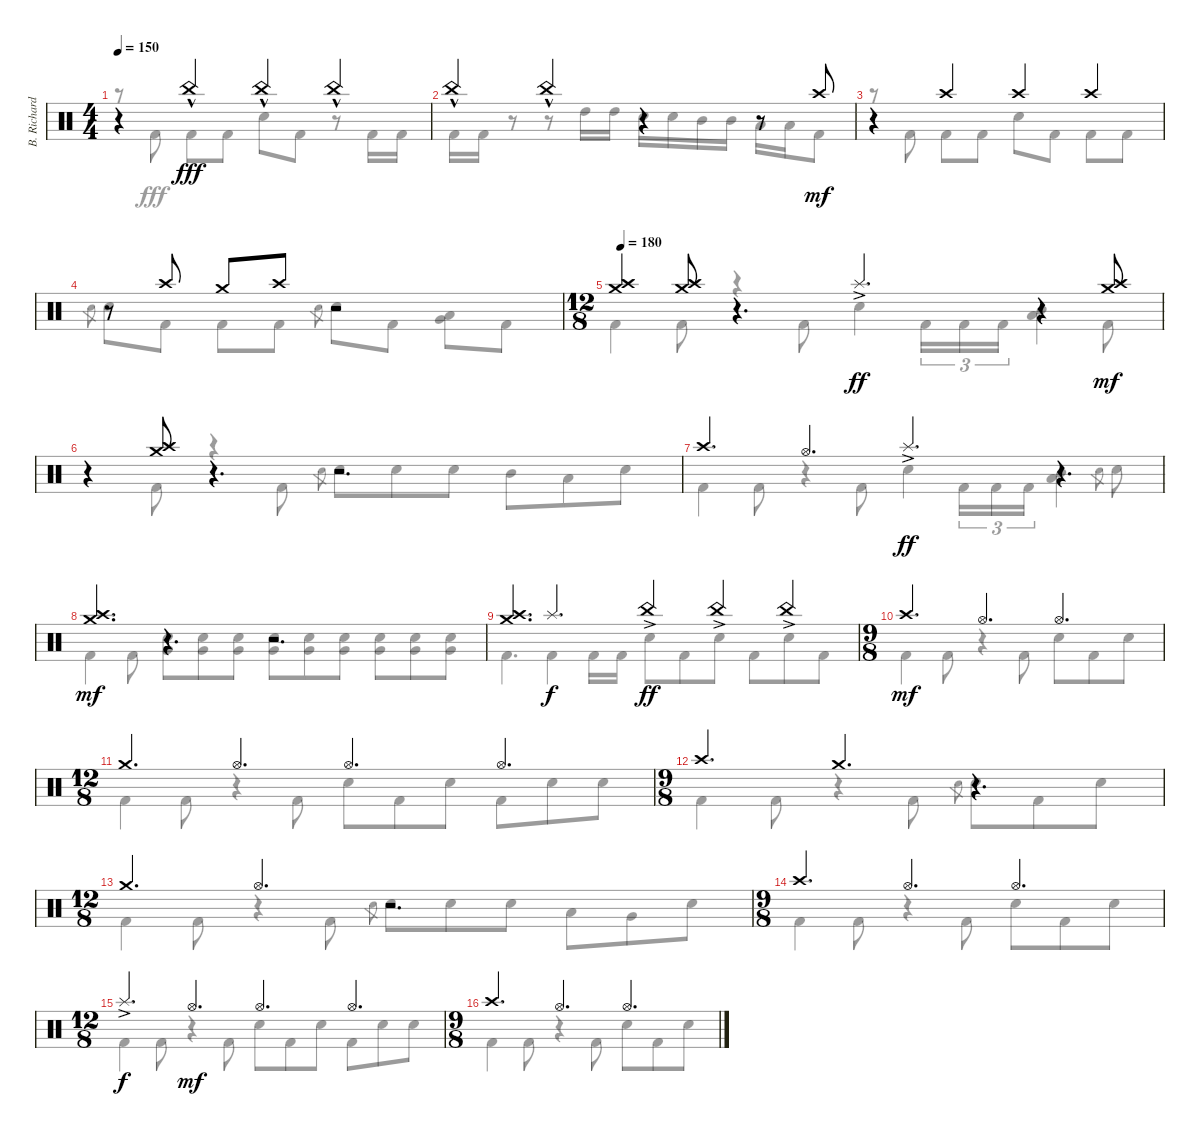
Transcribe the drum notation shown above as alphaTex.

\track ("B. Richardson Drums" "B. Richard") {instrument percussion}
\staff {score}
\articulation defaults
\voice
\ts (4 4)
\tempo 150
\clef neutral
\ks c
r.4{dy mf} "China (hit)"{hac}.4{dy fff} "China (hit)"{hac}.4 "China (hit)"{hac}.4 |
"China (hit)"{hac}.4 "China (hit)"{hac}.4 r.4 r.8 "Crash high (hit)".8{dy mf} |
r.4 "Crash high (hit)".4 "Crash high (hit)".4 "Crash high (hit)".4 |
r.8 "Crash high (hit)".8 "Crash medium (hit)".8 "Crash high (hit)".8 r.2 |
\ts (12 8)
\tempo 180
("Crash high (hit)" "Crash medium (hit)").4 ("Crash high (hit)" "Crash medium (hit)").8 r.4{d} "Splash (hit)"{ac}.4{d dy ff} r.4 ("Crash high (hit)" "Crash medium (hit)").8{dy mf} |
r.4 ("Crash high (hit)" "Crash medium (hit)").8 r.4{d} r.2{d} |
"Crash high (hit)".4{d} "Hi-Hat (open)".4{d} "Splash (hit)"{ac}.4{d dy ff} r.4{d} |
("Crash high (hit)" "Crash medium (hit)").4{d dy mf} r.4{d} r.2{d} |
("Crash high (hit)" "Crash medium (hit)").4{d} "Splash (hit)".4{d dy f} "China (hit)"{ac}.4{dy ff} "China (hit)"{ac}.4 "China (hit)"{ac}.4 |
\ts (9 8)
"Crash high (hit)".4{d dy mf} "Hi-Hat (open)".4{d} "Hi-Hat (open)".4{d} |
\ts (12 8)
"Crash medium (hit)".4{d} "Hi-Hat (open)".4{d} "Hi-Hat (open)".4{d} "Hi-Hat (open)".4{d} |
\ts (9 8)
"Crash high (hit)".4{d} "Crash medium (hit)".4{d} r.4{d} |
\ts (12 8)
"Crash medium (hit)".4{d} "Hi-Hat (open)".4{d} r.2{d} |
\ts (9 8)
"Crash high (hit)".4{d} "Hi-Hat (open)".4{d} "Hi-Hat (open)".4{d} |
\ts (12 8)
"Splash (hit)"{ac}.4{d dy f} "Hi-Hat (open)".4{d dy mf} "Hi-Hat (open)".4{d} "Hi-Hat (open)".4{d} |
\ts (9 8)
"Crash high (hit)".4{d} "Hi-Hat (open)".4{d} "Hi-Hat (open)".4{d}
\voice
\clef neutral
\ottava regular
\simile none
\ks c
r.8{dy fff} "Kick (hit) 2".8 "Kick (hit) 2".8 "Kick (hit) 2".8 "Electric Snare (hit)".8 "Kick (hit) 2".8 r.8 "Kick (hit) 2".16 "Kick (hit) 2".16 |
"Kick (hit) 2".16 "Kick (hit) 2".16 r.8 r.8 "High Tom (hit)".16 "High Tom (hit)".16 "Electric Snare (hit)".16 "Electric Snare (hit)".16 "Mid Tom (hit)".16 "Mid Tom (hit)".16 "Low Tom (hit)".16 "Low Tom (hit)".16 "Kick (hit) 2".8 |
r.8 "Kick (hit) 2".8 "Kick (hit) 2".8 "Kick (hit) 2".8 "Electric Snare (hit)".8 "Kick (hit) 2".8 "Kick (hit) 2".8 "Kick (hit) 2".8 |
"Electric Snare (hit)".8{gr} "Electric Snare (hit)".8 "Kick (hit) 2".8 "Kick (hit) 2".8 "Kick (hit) 2".8 "Electric Snare (hit)".8{gr} "Electric Snare (hit)".8 "Kick (hit) 2".8 ("Low Tom (hit)" "Very Low Tom (hit)").8 "Kick (hit) 2".8 |
"Kick (hit) 2".4 "Kick (hit) 2".8 r.4 "Kick (hit) 2".8 "Electric Snare (hit)".4 "Kick (hit) 2".16{tu (3 2)} "Kick (hit) 2".16{tu (3 2)} "Kick (hit) 2".16{tu (3 2)} ("Mid Tom (hit)" "Low Tom (hit)").4 "Kick (hit) 2".8 |
r.4 "Kick (hit) 2".8 r.4 "Kick (hit) 2".8 "Electric Snare (hit)".8{gr} "Electric Snare (hit)".8 "Electric Snare (hit)".8 "Electric Snare (hit)".8 "Mid Tom (hit)".8 "Low Tom (hit)".8 "Electric Snare (hit)".8 |
"Kick (hit) 2".4 "Kick (hit) 2".8 r.4 "Kick (hit) 2".8 "Electric Snare (hit)".4 "Kick (hit) 2".16{tu (3 2)} "Kick (hit) 2".16{tu (3 2)} "Kick (hit) 2".16{tu (3 2)} ("Mid Tom (hit)" "Low Tom (hit)").4 "Electric Snare (hit)".8{gr} "Electric Snare (hit)".8 |
"Kick (hit) 2".4 "Kick (hit) 2".8 ("Electric Snare (hit)" "Very Low Tom (hit)").8 ("Electric Snare (hit)" "Very Low Tom (hit)").8 ("Electric Snare (hit)" "Very Low Tom (hit)").8 ("Electric Snare (hit)" "Very Low Tom (hit)").8 ("Electric Snare (hit)" "Very Low Tom (hit)").8 ("Electric Snare (hit)" "Very Low Tom (hit)").8 ("Electric Snare (hit)" "Very Low Tom (hit)").8 ("Electric Snare (hit)" "Very Low Tom (hit)").8 ("Electric Snare (hit)" "Very Low Tom (hit)").8 |
"Kick (hit) 2".4{d} "Kick (hit) 2".4 "Kick (hit) 2".16 "Kick (hit) 2".16 "Electric Snare (hit)".8 "Kick (hit) 2".8 "Electric Snare (hit)".8 "Kick (hit) 2".8 "Electric Snare (hit)".8 "Kick (hit) 2".8 |
"Kick (hit) 2".4 "Kick (hit) 2".8 r.4 "Kick (hit) 2".8 "Electric Snare (hit)".8 "Kick (hit) 2".8 "Electric Snare (hit)".8 |
"Kick (hit) 2".4 "Kick (hit) 2".8 r.4 "Kick (hit) 2".8 "Electric Snare (hit)".8 "Kick (hit) 2".8 "Electric Snare (hit)".8 "Kick (hit) 2".8 "Electric Snare (hit)".8 "Electric Snare (hit)".8 |
"Kick (hit) 2".4 "Kick (hit) 2".8 r.4 "Kick (hit) 2".8 "Electric Snare (hit)".8{gr} "Electric Snare (hit)".8 "Kick (hit) 2".8 "Electric Snare (hit)".8 |
"Kick (hit) 2".4 "Kick (hit) 2".8 r.4 "Kick (hit) 2".8 "Electric Snare (hit)".8{gr} "Electric Snare (hit)".8 "Electric Snare (hit)".8 "Electric Snare (hit)".8 "Low Tom (hit)".8 "Very Low Tom (hit)".8 "Electric Snare (hit)".8 |
"Kick (hit) 2".4 "Kick (hit) 2".8 r.4 "Kick (hit) 2".8 "Electric Snare (hit)".8 "Kick (hit) 2".8 "Electric Snare (hit)".8 |
"Kick (hit) 2".4 "Kick (hit) 2".8 r.4 "Kick (hit) 2".8 "Electric Snare (hit)".8 "Kick (hit) 2".8 "Electric Snare (hit)".8 "Kick (hit) 2".8 "Electric Snare (hit)".8 "Electric Snare (hit)".8 |
"Kick (hit) 2".4 "Kick (hit) 2".8 r.4 "Kick (hit) 2".8 "Electric Snare (hit)".8 "Kick (hit) 2".8 "Electric Snare (hit)".8
